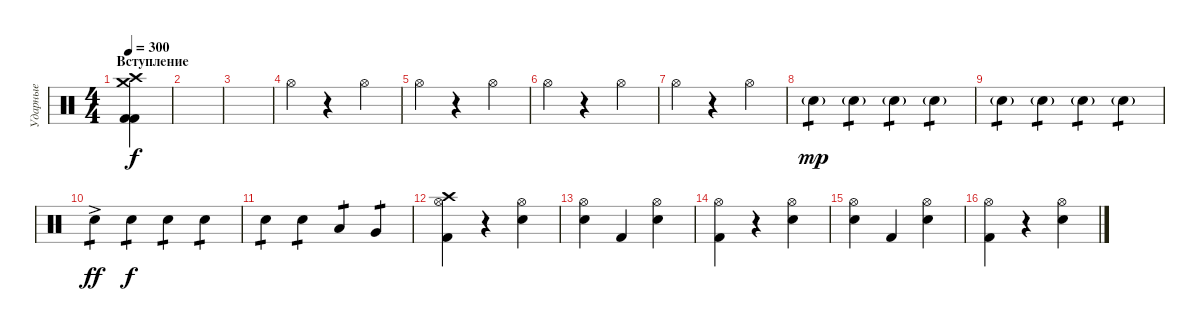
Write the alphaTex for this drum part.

\track ("Ударные" "Ударные") {instrument percussion}
\staff
\articulation defaults
\ts (4 4)
\section ("" "Вступление")
\tempo 300
\clef neutral
\ks c
("Kick (hit) 2" "Kick (hit) 2" "Crash medium (hit)" "Crash high (hit)").4{dy f} |
|
|
"Hi-Hat (open)".4 r.4 "Hi-Hat (open)".4 |
"Hi-Hat (open)".4 r.4 "Hi-Hat (open)".4 |
"Hi-Hat (open)".4 r.4 "Hi-Hat (open)".4 |
"Hi-Hat (open)".4 r.4 "Hi-Hat (open)".4 |
"Electric Snare (hit)"{g}.4{tp 1 dy mp} "Electric Snare (hit)"{g}.4{tp 1} "Electric Snare (hit)"{g}.4{tp 1} "Electric Snare (hit)"{g}.4{tp 1} |
"Electric Snare (hit)"{g}.4{tp 1} "Electric Snare (hit)"{g}.4{tp 1} "Electric Snare (hit)"{g}.4{tp 1} "Electric Snare (hit)"{g}.4{tp 1} |
"Electric Snare (hit)"{ac}.4{tp 1 dy ff} "Electric Snare (hit)".4{tp 1 dy f} "Electric Snare (hit)".4{tp 1} "Electric Snare (hit)".4{tp 1} |
"Electric Snare (hit)".4{tp 1} "Electric Snare (hit)".4{tp 1} "Low Floor Tom (hit)".4{tp 1} "Very Low Tom (hit)".4{tp 1} |
("Hi-Hat (open)" "Kick (hit) 2" "Crash high (hit)").4 r.4 ("Electric Snare (hit)" "Hi-Hat (open)").4 |
("Snare (hit)" "Hi-Hat (open)").4 "Kick (hit) 2".4 ("Electric Snare (hit)" "Hi-Hat (open)").4 |
("Hi-Hat (open)" "Kick (hit) 2").4 r.4 ("Electric Snare (hit)" "Hi-Hat (open)").4 |
("Snare (hit)" "Hi-Hat (open)").4 "Kick (hit) 2".4 ("Electric Snare (hit)" "Hi-Hat (open)").4 |
("Hi-Hat (open)" "Kick (hit) 2").4 r.4 ("Electric Snare (hit)" "Hi-Hat (open)").4
